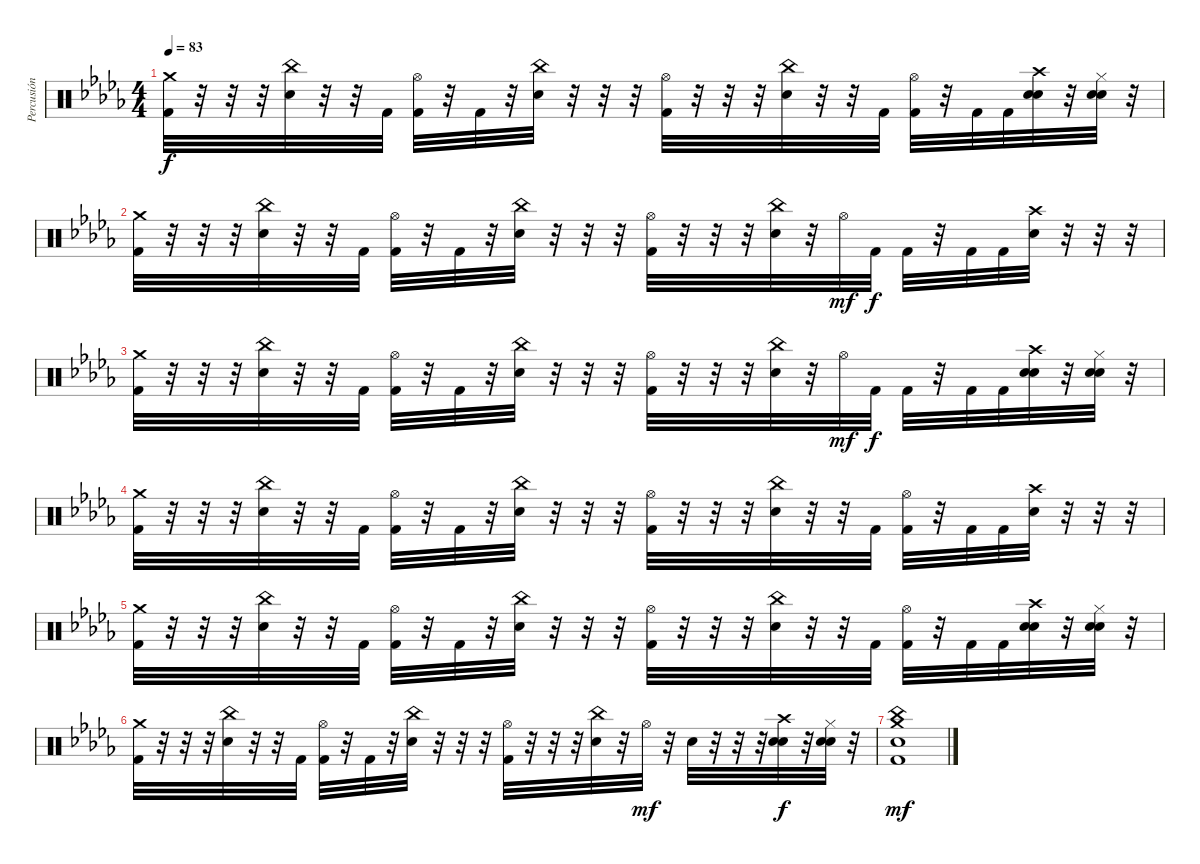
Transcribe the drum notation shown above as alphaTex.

\track ("Percusión" "Percusión") {instrument percussion}
\staff {score}
\articulation defaults
\ts (4 4)
\tempo 83
\clef neutral
\ks db
("Crash medium (hit)" "Kick (hit) 2").32{dy f} r.32 r.32 r.32 ("China (hit)" "Snare (hit) 2").32 r.32 r.32 "Kick (hit) 2".32 ("Hi-Hat (open)" "Kick (hit) 2").32 r.32 "Kick (hit) 2".32 r.32 ("China (hit)" "Snare (hit) 2").32 r.32 r.32 r.32 ("Hi-Hat (open)" "Kick (hit) 2").32 r.32 r.32 r.32 ("China (hit)" "Snare (hit) 2").32 r.32 r.32 "Kick (hit) 2".32 ("Hi-Hat (open)" "Kick (hit) 2").32 r.32 "Kick (hit) 2".32 "Kick (hit) 2".32 ("Crash high (hit)" "Hand Clap (hit)" "Snare (hit) 2").32 r.32 ("Hi-Hat (closed)" "Hand Clap (hit)" "Snare (hit) 2").32 r.32 |
("Crash medium (hit)" "Kick (hit) 2").32 r.32 r.32 r.32 ("China (hit)" "Snare (hit) 2").32 r.32 r.32 "Kick (hit) 2".32 ("Hi-Hat (open)" "Kick (hit) 2").32 r.32 "Kick (hit) 2".32 r.32 ("China (hit)" "Snare (hit) 2").32 r.32 r.32 r.32 ("Hi-Hat (open)" "Kick (hit) 2").32 r.32 r.32 r.32 ("China (hit)" "Snare (hit) 2").32 r.32 "Hi-Hat (open)".32{dy mf} "Kick (hit) 2".32{dy f} "Kick (hit) 2".32 r.32 "Kick (hit) 2".32 "Kick (hit) 2".32 ("Crash high (hit)" "Snare (hit) 2").32 r.32 r.32 r.32 |
("Crash medium (hit)" "Kick (hit) 2").32 r.32 r.32 r.32 ("China (hit)" "Snare (hit) 2").32 r.32 r.32 "Kick (hit) 2".32 ("Hi-Hat (open)" "Kick (hit) 2").32 r.32 "Kick (hit) 2".32 r.32 ("China (hit)" "Snare (hit) 2").32 r.32 r.32 r.32 ("Hi-Hat (open)" "Kick (hit) 2").32 r.32 r.32 r.32 ("China (hit)" "Snare (hit) 2").32 r.32 "Hi-Hat (open)".32{dy mf} "Kick (hit) 2".32{dy f} "Kick (hit) 2".32 r.32 "Kick (hit) 2".32 "Kick (hit) 2".32 ("Crash high (hit)" "Hand Clap (hit)" "Snare (hit) 2").32 r.32 ("Hi-Hat (closed)" "Hand Clap (hit)" "Snare (hit) 2").32 r.32 |
("Crash medium (hit)" "Kick (hit) 2").32 r.32 r.32 r.32 ("China (hit)" "Snare (hit) 2").32 r.32 r.32 "Kick (hit) 2".32 ("Hi-Hat (open)" "Kick (hit) 2").32 r.32 "Kick (hit) 2".32 r.32 ("China (hit)" "Snare (hit) 2").32 r.32 r.32 r.32 ("Hi-Hat (open)" "Kick (hit) 2").32 r.32 r.32 r.32 ("China (hit)" "Snare (hit) 2").32 r.32 r.32 "Kick (hit) 2".32 ("Hi-Hat (open)" "Kick (hit) 2").32 r.32 "Kick (hit) 2".32 "Kick (hit) 2".32 ("Crash high (hit)" "Snare (hit) 2").32 r.32 r.32 r.32 |
("Crash medium (hit)" "Kick (hit) 2").32 r.32 r.32 r.32 ("China (hit)" "Snare (hit) 2").32 r.32 r.32 "Kick (hit) 2".32 ("Hi-Hat (open)" "Kick (hit) 2").32 r.32 "Kick (hit) 2".32 r.32 ("China (hit)" "Snare (hit) 2").32 r.32 r.32 r.32 ("Hi-Hat (open)" "Kick (hit) 2").32 r.32 r.32 r.32 ("China (hit)" "Snare (hit) 2").32 r.32 r.32 "Kick (hit) 2".32 ("Hi-Hat (open)" "Kick (hit) 2").32 r.32 "Kick (hit) 2".32 "Kick (hit) 2".32 ("Crash high (hit)" "Hand Clap (hit)" "Snare (hit) 2").32 r.32 ("Hi-Hat (closed)" "Hand Clap (hit)" "Snare (hit) 2").32 r.32 |
("Crash medium (hit)" "Kick (hit) 2").32 r.32 r.32 r.32 ("China (hit)" "Snare (hit) 2").32 r.32 r.32 "Kick (hit) 2".32 ("Hi-Hat (open)" "Kick (hit) 2").32 r.32 "Kick (hit) 2".32 r.32 ("China (hit)" "Snare (hit) 2").32 r.32 r.32 r.32 ("Hi-Hat (open)" "Kick (hit) 2").32 r.32 r.32 r.32 ("China (hit)" "Snare (hit) 2").32 r.32 "Hi-Hat (open)".32{dy mf} r.32 "Snare (hit) 2".32 r.32 r.32 r.32 ("Crash high (hit)" "Hand Clap (hit)" "Snare (hit) 2").32{dy f} r.32 ("Hi-Hat (closed)" "Hand Clap (hit)" "Snare (hit) 2").32 r.32 |
("China (hit)" "Crash medium (hit)" "Snare (hit) 2" "Kick (hit) 2").1{dy mf}
